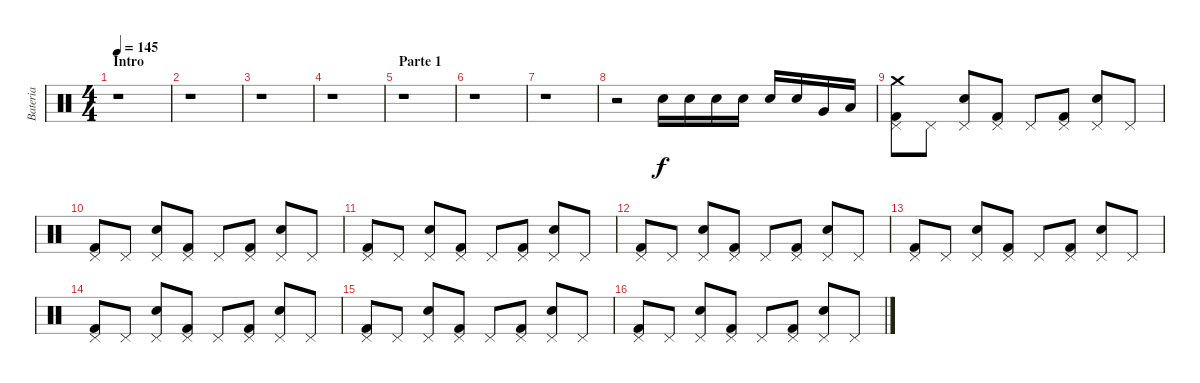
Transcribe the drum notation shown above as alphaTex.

\track ("Bateria" "Bateria") {instrument percussion}
\staff {score}
\articulation defaults
\ts (4 4)
\section ("" "Intro")
\tempo 145
\clef neutral
\ks c
r.1{dy f} |
r.1 |
r.1 |
r.1 |
\section ("" "Parte 1")
r.1 |
r.1 |
r.1 |
r.2 "Snare (hit) 2".16 "Snare (hit) 2".16 "Snare (hit) 2".16 "Snare (hit) 2".16 "Snare (hit) 2".16 "Electric Snare (hit)".16 "Very Low Tom (hit)".16 "Low Floor Tom (hit)".16 |
("Kick (hit) 2" "Pedal Hi-Hat (hit)" "Crash medium (hit)").8 "Pedal Hi-Hat (hit)".8 ("Pedal Hi-Hat (hit)" "Snare (hit) 2").8 ("Kick (hit) 2" "Pedal Hi-Hat (hit)").8 "Pedal Hi-Hat (hit)".8 ("Kick (hit) 2" "Pedal Hi-Hat (hit)").8 ("Pedal Hi-Hat (hit)" "Snare (hit) 2").8 "Pedal Hi-Hat (hit)".8 |
("Kick (hit) 2" "Pedal Hi-Hat (hit)").8 "Pedal Hi-Hat (hit)".8 ("Pedal Hi-Hat (hit)" "Snare (hit) 2").8 ("Kick (hit) 2" "Pedal Hi-Hat (hit)").8 "Pedal Hi-Hat (hit)".8 ("Kick (hit) 2" "Pedal Hi-Hat (hit)").8 ("Pedal Hi-Hat (hit)" "Snare (hit) 2").8 "Pedal Hi-Hat (hit)".8 |
("Kick (hit) 2" "Pedal Hi-Hat (hit)").8 "Pedal Hi-Hat (hit)".8 ("Pedal Hi-Hat (hit)" "Snare (hit) 2").8 ("Kick (hit) 2" "Pedal Hi-Hat (hit)").8 "Pedal Hi-Hat (hit)".8 ("Kick (hit) 2" "Pedal Hi-Hat (hit)").8 ("Pedal Hi-Hat (hit)" "Snare (hit) 2").8 "Pedal Hi-Hat (hit)".8 |
("Kick (hit) 2" "Pedal Hi-Hat (hit)").8 "Pedal Hi-Hat (hit)".8 ("Pedal Hi-Hat (hit)" "Snare (hit) 2").8 ("Kick (hit) 2" "Pedal Hi-Hat (hit)").8 "Pedal Hi-Hat (hit)".8 ("Kick (hit) 2" "Pedal Hi-Hat (hit)").8 ("Pedal Hi-Hat (hit)" "Snare (hit) 2").8 "Pedal Hi-Hat (hit)".8 |
("Kick (hit) 2" "Pedal Hi-Hat (hit)").8 "Pedal Hi-Hat (hit)".8 ("Pedal Hi-Hat (hit)" "Snare (hit) 2").8 ("Kick (hit) 2" "Pedal Hi-Hat (hit)").8 "Pedal Hi-Hat (hit)".8 ("Kick (hit) 2" "Pedal Hi-Hat (hit)").8 ("Pedal Hi-Hat (hit)" "Snare (hit) 2").8 "Pedal Hi-Hat (hit)".8 |
("Kick (hit) 2" "Pedal Hi-Hat (hit)").8 "Pedal Hi-Hat (hit)".8 ("Pedal Hi-Hat (hit)" "Snare (hit) 2").8 ("Kick (hit) 2" "Pedal Hi-Hat (hit)").8 "Pedal Hi-Hat (hit)".8 ("Kick (hit) 2" "Pedal Hi-Hat (hit)").8 ("Pedal Hi-Hat (hit)" "Snare (hit) 2").8 "Pedal Hi-Hat (hit)".8 |
("Kick (hit) 2" "Pedal Hi-Hat (hit)").8 "Pedal Hi-Hat (hit)".8 ("Pedal Hi-Hat (hit)" "Snare (hit) 2").8 ("Kick (hit) 2" "Pedal Hi-Hat (hit)").8 "Pedal Hi-Hat (hit)".8 ("Kick (hit) 2" "Pedal Hi-Hat (hit)").8 ("Pedal Hi-Hat (hit)" "Snare (hit) 2").8 "Pedal Hi-Hat (hit)".8 |
("Kick (hit) 2" "Pedal Hi-Hat (hit)").8 "Pedal Hi-Hat (hit)".8 ("Pedal Hi-Hat (hit)" "Snare (hit) 2").8 ("Kick (hit) 2" "Pedal Hi-Hat (hit)").8 "Pedal Hi-Hat (hit)".8 ("Kick (hit) 2" "Pedal Hi-Hat (hit)").8 ("Pedal Hi-Hat (hit)" "Snare (hit) 2").8 "Pedal Hi-Hat (hit)".8
